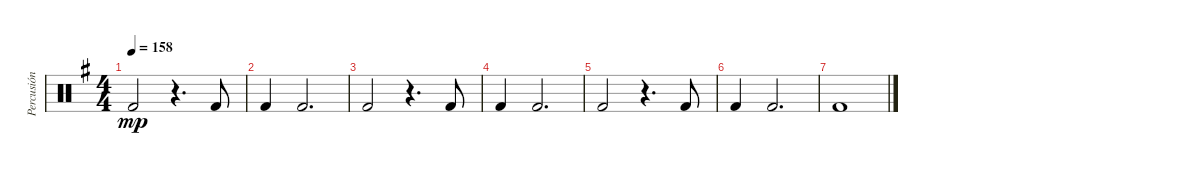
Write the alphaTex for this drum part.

\track ("Percusión" "Percusión") {instrument percussion}
\staff {score}
\articulation defaults
\ts (4 4)
\tempo 158
\clef neutral
\ks g "Kick (hit) 2".2{dy mp}
r.4{d} "Kick (hit) 2".8 |
"Kick (hit) 2".4 "Kick (hit) 2".2{d} |
"Kick (hit) 2".2 r.4{d} "Kick (hit) 2".8 |
"Kick (hit) 2".4 "Kick (hit) 2".2{d} |
"Kick (hit) 2".2 r.4{d} "Kick (hit) 2".8 |
"Kick (hit) 2".4 "Kick (hit) 2".2{d} |
"Kick (hit) 2".1
